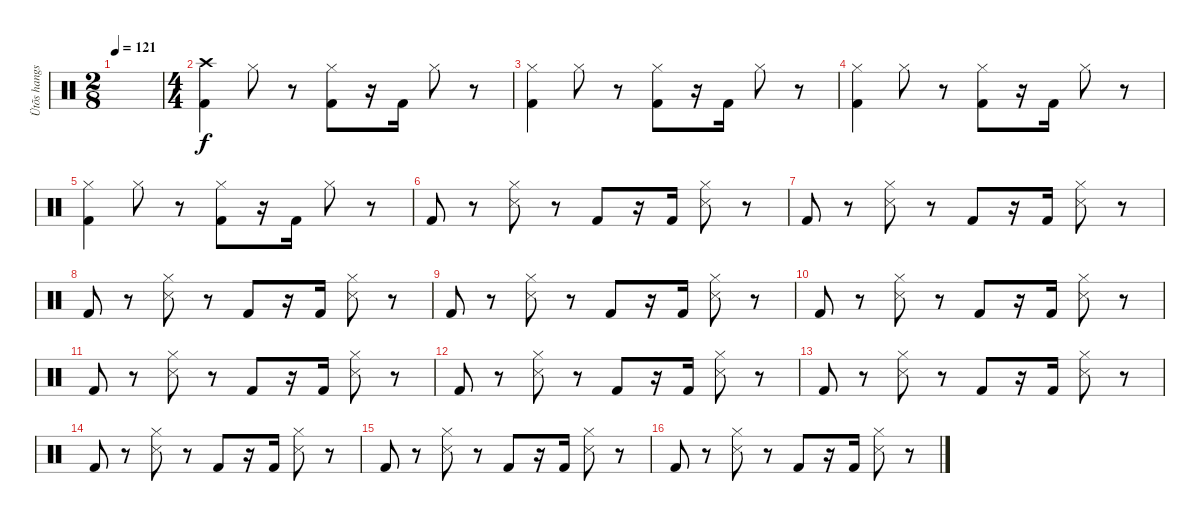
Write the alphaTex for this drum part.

\track ("Ütõs hangszer" "Ütõs hangs") {instrument percussion}
\staff {score}
\articulation defaults
\ts (2 8)
\tempo 121
\clef neutral
\ks c
|
\ts (4 4)
("Crash high (hit)" "Kick (hit) 2").4 "Hi-Hat (closed)".8 r.8 ("Hi-Hat (closed)" "Kick (hit) 2").8 r.16 "Kick (hit) 2".16 "Hi-Hat (closed)".8 r.8 |
("Hi-Hat (closed)" "Kick (hit) 2").4 "Hi-Hat (closed)".8 r.8 ("Hi-Hat (closed)" "Kick (hit) 2").8 r.16 "Kick (hit) 2".16 "Hi-Hat (closed)".8 r.8 |
("Hi-Hat (closed)" "Kick (hit) 2").4 "Hi-Hat (closed)".8 r.8 ("Hi-Hat (closed)" "Kick (hit) 2").8 r.16 "Kick (hit) 2".16 "Hi-Hat (closed)".8 r.8 |
("Hi-Hat (closed)" "Kick (hit) 2").4 "Hi-Hat (closed)".8 r.8 ("Hi-Hat (closed)" "Kick (hit) 2").8 r.16 "Kick (hit) 2".16 "Hi-Hat (closed)".8 r.8 |
"Kick (hit) 2".8 r.8 ("Hi-Hat (closed)" "Metronome (hit)").8 r.8 "Kick (hit) 2".8 r.16 "Kick (hit) 2".16 ("Hi-Hat (closed)" "Metronome (hit)").8 r.8 |
"Kick (hit) 2".8 r.8 ("Hi-Hat (closed)" "Metronome (hit)").8 r.8 "Kick (hit) 2".8 r.16 "Kick (hit) 2".16 ("Hi-Hat (closed)" "Metronome (hit)").8 r.8 |
"Kick (hit) 2".8 r.8 ("Hi-Hat (closed)" "Metronome (hit)").8 r.8 "Kick (hit) 2".8 r.16 "Kick (hit) 2".16 ("Hi-Hat (closed)" "Metronome (hit)").8 r.8 |
"Kick (hit) 2".8 r.8 ("Hi-Hat (closed)" "Metronome (hit)").8 r.8 "Kick (hit) 2".8 r.16 "Kick (hit) 2".16 ("Hi-Hat (closed)" "Metronome (hit)").8 r.8 |
"Kick (hit) 2".8 r.8 ("Hi-Hat (closed)" "Metronome (hit)").8 r.8 "Kick (hit) 2".8 r.16 "Kick (hit) 2".16 ("Hi-Hat (closed)" "Metronome (hit)").8 r.8 |
"Kick (hit) 2".8 r.8 ("Hi-Hat (closed)" "Metronome (hit)").8 r.8 "Kick (hit) 2".8 r.16 "Kick (hit) 2".16 ("Hi-Hat (closed)" "Metronome (hit)").8 r.8 |
"Kick (hit) 2".8 r.8 ("Hi-Hat (closed)" "Metronome (hit)").8 r.8 "Kick (hit) 2".8 r.16 "Kick (hit) 2".16 ("Hi-Hat (closed)" "Metronome (hit)").8 r.8 |
"Kick (hit) 2".8 r.8 ("Hi-Hat (closed)" "Metronome (hit)").8 r.8 "Kick (hit) 2".8 r.16 "Kick (hit) 2".16 ("Hi-Hat (closed)" "Metronome (hit)").8 r.8 |
"Kick (hit) 2".8 r.8 ("Hi-Hat (closed)" "Metronome (hit)").8 r.8 "Kick (hit) 2".8 r.16 "Kick (hit) 2".16 ("Hi-Hat (closed)" "Metronome (hit)").8 r.8 |
"Kick (hit) 2".8 r.8 ("Hi-Hat (closed)" "Metronome (hit)").8 r.8 "Kick (hit) 2".8 r.16 "Kick (hit) 2".16 ("Hi-Hat (closed)" "Metronome (hit)").8 r.8 |
"Kick (hit) 2".8 r.8 ("Hi-Hat (closed)" "Metronome (hit)").8 r.8 "Kick (hit) 2".8 r.16 "Kick (hit) 2".16 ("Hi-Hat (closed)" "Metronome (hit)").8 r.8
